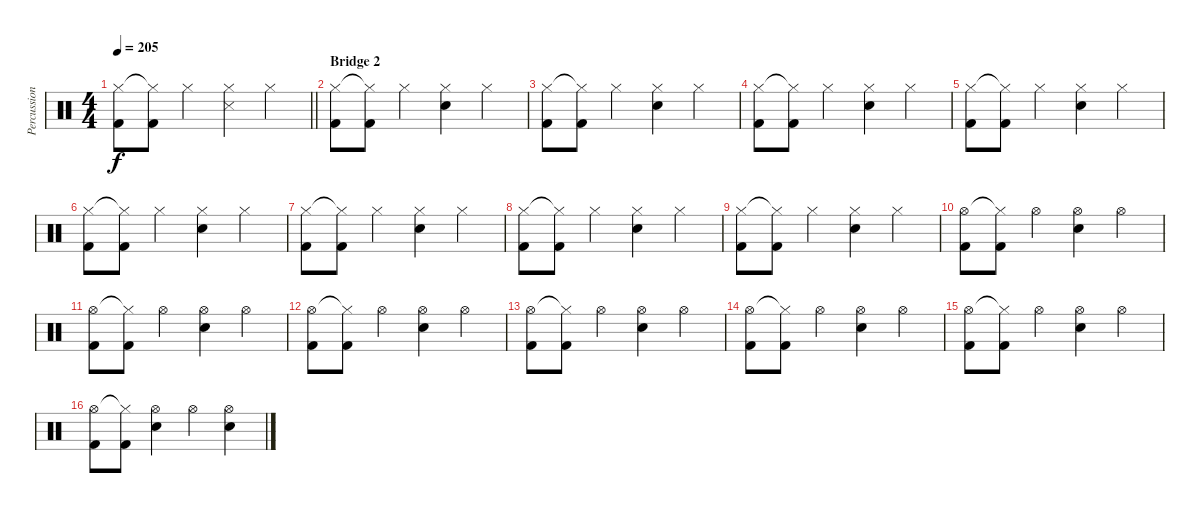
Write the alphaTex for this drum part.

\track ("Percussion" "Percussion") {instrument percussion}
\staff {score}
\articulation defaults
\ts (4 4)
\tempo 205
\clef neutral
\barLineRight lightlight
\ks c
("Hi-Hat (closed)" "Kick (hit) 2").8{dy f} ("Hi-Hat (closed)"{t} "Kick (hit) 2").8 "Hi-Hat (closed)".4 ("Snare (side stick) 3" "Hi-Hat (closed)").4 "Hi-Hat (closed)".4 |
\section ("" "Bridge 2")
("Hi-Hat (closed)" "Kick (hit) 2").8 ("Hi-Hat (closed)"{t} "Kick (hit) 2").8 "Hi-Hat (closed)".4 ("Electric Snare (hit)" "Hi-Hat (closed)").4 "Hi-Hat (closed)".4 |
("Hi-Hat (closed)" "Kick (hit) 2").8 ("Hi-Hat (closed)"{t} "Kick (hit) 2").8 "Hi-Hat (closed)".4 ("Electric Snare (hit)" "Hi-Hat (closed)").4 "Hi-Hat (closed)".4 |
("Hi-Hat (closed)" "Kick (hit) 2").8 ("Hi-Hat (closed)"{t} "Kick (hit) 2").8 "Hi-Hat (closed)".4 ("Electric Snare (hit)" "Hi-Hat (closed)").4 "Hi-Hat (closed)".4 |
("Hi-Hat (closed)" "Kick (hit) 2").8 ("Hi-Hat (closed)"{t} "Kick (hit) 2").8 "Hi-Hat (closed)".4 ("Electric Snare (hit)" "Hi-Hat (closed)").4 "Hi-Hat (closed)".4 |
("Hi-Hat (closed)" "Kick (hit) 2").8 ("Hi-Hat (closed)"{t} "Kick (hit) 2").8 "Hi-Hat (closed)".4 ("Electric Snare (hit)" "Hi-Hat (closed)").4 "Hi-Hat (closed)".4 |
("Hi-Hat (closed)" "Kick (hit) 2").8 ("Hi-Hat (closed)"{t} "Kick (hit) 2").8 "Hi-Hat (closed)".4 ("Electric Snare (hit)" "Hi-Hat (closed)").4 "Hi-Hat (closed)".4 |
("Hi-Hat (closed)" "Kick (hit) 2").8 ("Hi-Hat (closed)"{t} "Kick (hit) 2").8 "Hi-Hat (closed)".4 ("Electric Snare (hit)" "Hi-Hat (closed)").4 "Hi-Hat (closed)".4 |
("Hi-Hat (closed)" "Kick (hit) 2").8 ("Hi-Hat (closed)"{t} "Kick (hit) 2").8 "Hi-Hat (closed)".4 ("Electric Snare (hit)" "Hi-Hat (closed)").4 "Hi-Hat (closed)".4 |
("Hi-Hat (open)" "Kick (hit) 2").8 ("Hi-Hat (closed)"{t} "Kick (hit) 2").8 "Hi-Hat (open)".4 ("Electric Snare (hit)" "Hi-Hat (open)").4 "Hi-Hat (open)".4 |
("Hi-Hat (open)" "Kick (hit) 2").8 ("Hi-Hat (closed)"{t} "Kick (hit) 2").8 "Hi-Hat (open)".4 ("Electric Snare (hit)" "Hi-Hat (open)").4 "Hi-Hat (open)".4 |
("Hi-Hat (open)" "Kick (hit) 2").8 ("Hi-Hat (closed)"{t} "Kick (hit) 2").8 "Hi-Hat (open)".4 ("Electric Snare (hit)" "Hi-Hat (open)").4 "Hi-Hat (open)".4 |
("Hi-Hat (open)" "Kick (hit) 2").8 ("Hi-Hat (closed)"{t} "Kick (hit) 2").8 "Hi-Hat (open)".4 ("Electric Snare (hit)" "Hi-Hat (open)").4 "Hi-Hat (open)".4 |
("Hi-Hat (open)" "Kick (hit) 2").8 ("Hi-Hat (closed)"{t} "Kick (hit) 2").8 "Hi-Hat (open)".4 ("Electric Snare (hit)" "Hi-Hat (open)").4 "Hi-Hat (open)".4 |
("Hi-Hat (open)" "Kick (hit) 2").8 ("Hi-Hat (closed)"{t} "Kick (hit) 2").8 "Hi-Hat (open)".4 ("Electric Snare (hit)" "Hi-Hat (open)").4 "Hi-Hat (open)".4 |
("Hi-Hat (open)" "Kick (hit) 2").8 ("Hi-Hat (closed)"{t} "Kick (hit) 2").8 ("Electric Snare (hit)" "Hi-Hat (open)").4 "Hi-Hat (open)".4 ("Electric Snare (hit)" "Hi-Hat (open)").4
